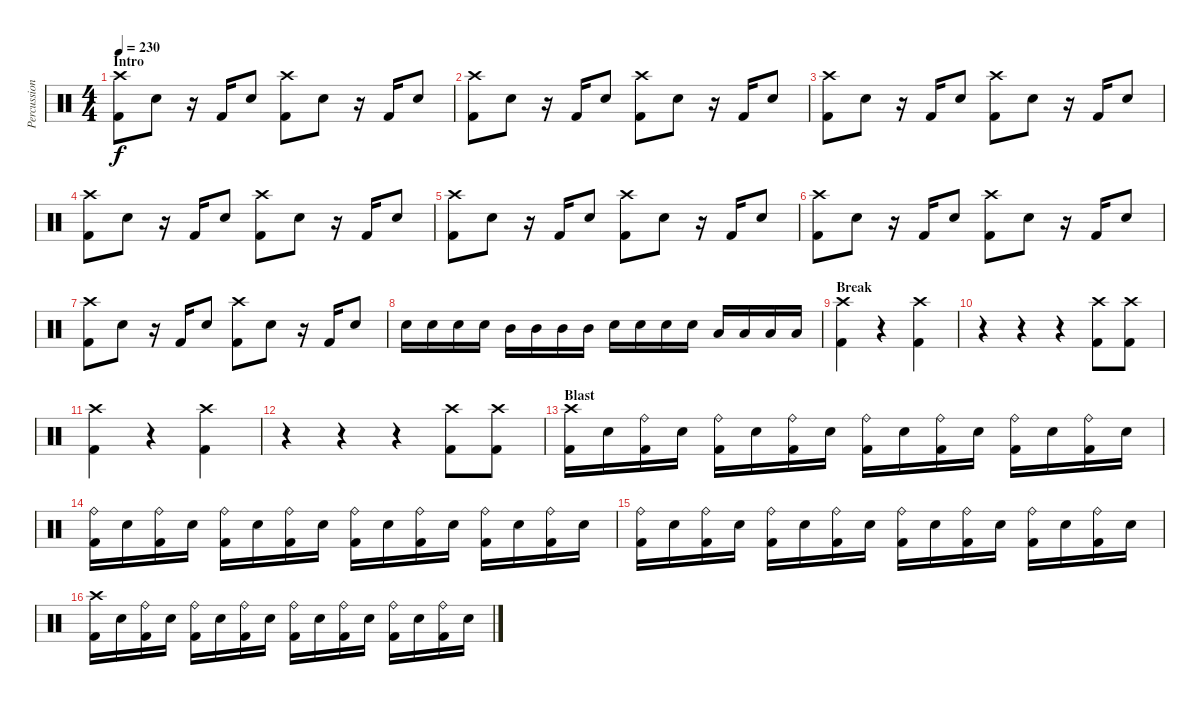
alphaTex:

\track ("Percussion" "Percussion") {instrument percussion}
\staff {score}
\articulation defaults
\ts (4 4)
\section ("" "Intro")
\tempo 230
\clef neutral
\ks c
("Kick (hit) 2" "Crash high (hit)").8{dy f} "Snare (hit) 2".8 r.16 "Kick (hit) 2".16 "Snare (hit) 2".8 ("Kick (hit) 2" "Crash high (hit)").8 "Snare (hit) 2".8 r.16 "Kick (hit) 2".16 "Snare (hit) 2".8 |
("Kick (hit) 2" "Crash high (hit)").8 "Snare (hit) 2".8 r.16 "Kick (hit) 2".16 "Snare (hit) 2".8 ("Kick (hit) 2" "Crash high (hit)").8 "Snare (hit) 2".8 r.16 "Kick (hit) 2".16 "Snare (hit) 2".8 |
("Kick (hit) 2" "Crash high (hit)").8 "Snare (hit) 2".8 r.16 "Kick (hit) 2".16 "Snare (hit) 2".8 ("Kick (hit) 2" "Crash high (hit)").8 "Snare (hit) 2".8 r.16 "Kick (hit) 2".16 "Snare (hit) 2".8 |
("Kick (hit) 2" "Crash high (hit)").8 "Snare (hit) 2".8 r.16 "Kick (hit) 2".16 "Snare (hit) 2".8 ("Kick (hit) 2" "Crash high (hit)").8 "Snare (hit) 2".8 r.16 "Kick (hit) 2".16 "Snare (hit) 2".8 |
("Kick (hit) 2" "Crash high (hit)").8 "Snare (hit) 2".8 r.16 "Kick (hit) 2".16 "Snare (hit) 2".8 ("Kick (hit) 2" "Crash high (hit)").8 "Snare (hit) 2".8 r.16 "Kick (hit) 2".16 "Snare (hit) 2".8 |
("Kick (hit) 2" "Crash high (hit)").8 "Snare (hit) 2".8 r.16 "Kick (hit) 2".16 "Snare (hit) 2".8 ("Kick (hit) 2" "Crash high (hit)").8 "Snare (hit) 2".8 r.16 "Kick (hit) 2".16 "Snare (hit) 2".8 |
("Kick (hit) 2" "Crash high (hit)").8 "Snare (hit) 2".8 r.16 "Kick (hit) 2".16 "Snare (hit) 2".8 ("Kick (hit) 2" "Crash high (hit)").8 "Snare (hit) 2".8 r.16 "Kick (hit) 2".16 "Snare (hit) 2".8 |
"Snare (hit) 2".16 "Snare (hit) 2".16 "Snare (hit) 2".16 "Snare (hit) 2".16 "Mid Tom (hit)".16 "Mid Tom (hit)".16 "Mid Tom (hit)".16 "Mid Tom (hit)".16 "Snare (hit) 2".16 "Snare (hit) 2".16 "Snare (hit) 2".16 "Snare (hit) 2".16 "Low Floor Tom (hit)".16 "Low Floor Tom (hit)".16 "Low Floor Tom (hit)".16 "Low Floor Tom (hit)".16 |
\section ("" "Break")
("Kick (hit) 2" "Crash high (hit)").4 r.4 ("Kick (hit) 2" "Crash high (hit)").4 |
r.4 r.4 r.4 ("Kick (hit) 2" "Crash high (hit)").8 ("Kick (hit) 2" "Crash high (hit)").8 |
("Kick (hit) 2" "Crash high (hit)").4 r.4 ("Kick (hit) 2" "Crash high (hit)").4 |
r.4 r.4 r.4 ("Kick (hit) 2" "Crash high (hit)").8 ("Kick (hit) 2" "Crash high (hit)").8 |
\section ("" "Blast")
("Kick (hit) 2" "Crash high (hit)").16 "Snare (hit) 2".16 ("Kick (hit) 2" "Ride (bell)").16 "Snare (hit) 2".16 ("Kick (hit) 2" "Ride (bell)").16 "Snare (hit) 2".16 ("Kick (hit) 2" "Ride (bell)").16 "Snare (hit) 2".16 ("Kick (hit) 2" "Ride (bell)").16 "Snare (hit) 2".16 ("Kick (hit) 2" "Ride (bell)").16 "Snare (hit) 2".16 ("Kick (hit) 2" "Ride (bell)").16 "Snare (hit) 2".16 ("Kick (hit) 2" "Ride (bell)").16 "Snare (hit) 2".16 |
("Kick (hit) 2" "Ride (bell)").16 "Snare (hit) 2".16 ("Kick (hit) 2" "Ride (bell)").16 "Snare (hit) 2".16 ("Kick (hit) 2" "Ride (bell)").16 "Snare (hit) 2".16 ("Kick (hit) 2" "Ride (bell)").16 "Snare (hit) 2".16 ("Kick (hit) 2" "Ride (bell)").16 "Snare (hit) 2".16 ("Kick (hit) 2" "Ride (bell)").16 "Snare (hit) 2".16 ("Kick (hit) 2" "Ride (bell)").16 "Snare (hit) 2".16 ("Kick (hit) 2" "Ride (bell)").16 "Snare (hit) 2".16 |
("Kick (hit) 2" "Ride (bell)").16 "Snare (hit) 2".16 ("Kick (hit) 2" "Ride (bell)").16 "Snare (hit) 2".16 ("Kick (hit) 2" "Ride (bell)").16 "Snare (hit) 2".16 ("Kick (hit) 2" "Ride (bell)").16 "Snare (hit) 2".16 ("Kick (hit) 2" "Ride (bell)").16 "Snare (hit) 2".16 ("Kick (hit) 2" "Ride (bell)").16 "Snare (hit) 2".16 ("Kick (hit) 2" "Ride (bell)").16 "Snare (hit) 2".16 ("Kick (hit) 2" "Ride (bell)").16 "Snare (hit) 2".16 |
("Kick (hit) 2" "Crash high (hit)").16 "Snare (hit) 2".16 ("Kick (hit) 2" "Ride (bell)").16 "Snare (hit) 2".16 ("Kick (hit) 2" "Ride (bell)").16 "Snare (hit) 2".16 ("Kick (hit) 2" "Ride (bell)").16 "Snare (hit) 2".16 ("Kick (hit) 2" "Ride (bell)").16 "Snare (hit) 2".16 ("Kick (hit) 2" "Ride (bell)").16 "Snare (hit) 2".16 ("Kick (hit) 2" "Ride (bell)").16 "Snare (hit) 2".16 ("Kick (hit) 2" "Ride (bell)").16 "Snare (hit) 2".16
